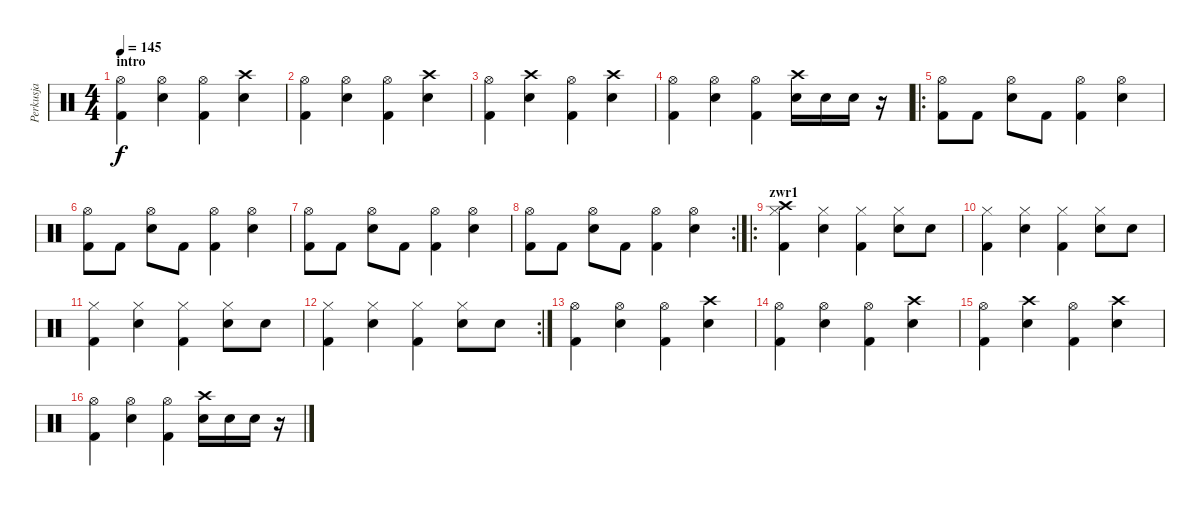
\track ("Perkusja" "Perkusja") {instrument percussion}
\staff {score}
\articulation defaults
\ts (4 4)
\section ("" "intro")
\tempo 145
\clef neutral
\ks c
("Hi-Hat (open)" "Kick (hit) 2").4{dy f} ("Hi-Hat (open)" "Electric Snare (hit)").4 ("Hi-Hat (open)" "Kick (hit) 2").4 ("Crash high (hit)" "Electric Snare (hit)").4 |
("Hi-Hat (open)" "Kick (hit) 2").4 ("Hi-Hat (open)" "Electric Snare (hit)").4 ("Hi-Hat (open)" "Kick (hit) 2").4 ("Crash high (hit)" "Electric Snare (hit)").4 |
("Hi-Hat (open)" "Kick (hit) 2").4 ("Crash high (hit)" "Electric Snare (hit)").4 ("Hi-Hat (open)" "Kick (hit) 2").4 ("Crash high (hit)" "Electric Snare (hit)").4 |
("Hi-Hat (open)" "Kick (hit) 2").4 ("Hi-Hat (open)" "Electric Snare (hit)").4 ("Hi-Hat (open)" "Kick (hit) 2").4 ("Crash high (hit)" "Electric Snare (hit)").16 "Electric Snare (hit)".16 "Electric Snare (hit)".16 r.16 |
\ro
("Hi-Hat (open)" "Kick (hit) 2").8 "Kick (hit) 2".8 ("Hi-Hat (open)" "Electric Snare (hit)").8 "Kick (hit) 2".8 ("Hi-Hat (open)" "Kick (hit) 2").4 ("Hi-Hat (open)" "Electric Snare (hit)").4 |
("Hi-Hat (open)" "Kick (hit) 2").8 "Kick (hit) 2".8 ("Hi-Hat (open)" "Electric Snare (hit)").8 "Kick (hit) 2".8 ("Hi-Hat (open)" "Kick (hit) 2").4 ("Hi-Hat (open)" "Electric Snare (hit)").4 |
("Hi-Hat (open)" "Kick (hit) 2").8 "Kick (hit) 2".8 ("Hi-Hat (open)" "Electric Snare (hit)").8 "Kick (hit) 2".8 ("Hi-Hat (open)" "Kick (hit) 2").4 ("Hi-Hat (open)" "Electric Snare (hit)").4 |
\rc 2
("Hi-Hat (open)" "Kick (hit) 2").8 "Kick (hit) 2".8 ("Hi-Hat (open)" "Electric Snare (hit)").8 "Kick (hit) 2".8 ("Hi-Hat (open)" "Kick (hit) 2").4 ("Hi-Hat (open)" "Electric Snare (hit)").4 |
\ro
\section ("" "zwr1")
("Hi-Hat (closed)" "Kick (hit) 2" "Crash high (hit)").4 ("Hi-Hat (closed)" "Electric Snare (hit)").4 ("Hi-Hat (closed)" "Kick (hit) 2").4 ("Hi-Hat (closed)" "Electric Snare (hit)").8 "Electric Snare (hit)".8 |
("Hi-Hat (closed)" "Kick (hit) 2").4 ("Hi-Hat (closed)" "Electric Snare (hit)").4 ("Hi-Hat (closed)" "Kick (hit) 2").4 ("Hi-Hat (closed)" "Electric Snare (hit)").8 "Electric Snare (hit)".8 |
("Hi-Hat (closed)" "Kick (hit) 2").4 ("Hi-Hat (closed)" "Electric Snare (hit)").4 ("Hi-Hat (closed)" "Kick (hit) 2").4 ("Hi-Hat (closed)" "Electric Snare (hit)").8 "Electric Snare (hit)".8 |
\rc 2
("Hi-Hat (closed)" "Kick (hit) 2").4 ("Hi-Hat (closed)" "Electric Snare (hit)").4 ("Hi-Hat (closed)" "Kick (hit) 2").4 ("Hi-Hat (closed)" "Electric Snare (hit)").8 "Electric Snare (hit)".8 |
("Hi-Hat (open)" "Kick (hit) 2").4 ("Hi-Hat (open)" "Electric Snare (hit)").4 ("Hi-Hat (open)" "Kick (hit) 2").4 ("Crash high (hit)" "Electric Snare (hit)").4 |
("Hi-Hat (open)" "Kick (hit) 2").4 ("Hi-Hat (open)" "Electric Snare (hit)").4 ("Hi-Hat (open)" "Kick (hit) 2").4 ("Crash high (hit)" "Electric Snare (hit)").4 |
("Hi-Hat (open)" "Kick (hit) 2").4 ("Crash high (hit)" "Electric Snare (hit)").4 ("Hi-Hat (open)" "Kick (hit) 2").4 ("Crash high (hit)" "Electric Snare (hit)").4 |
("Hi-Hat (open)" "Kick (hit) 2").4 ("Hi-Hat (open)" "Electric Snare (hit)").4 ("Hi-Hat (open)" "Kick (hit) 2").4 ("Crash high (hit)" "Electric Snare (hit)").16 "Electric Snare (hit)".16 "Electric Snare (hit)".16 r.16
